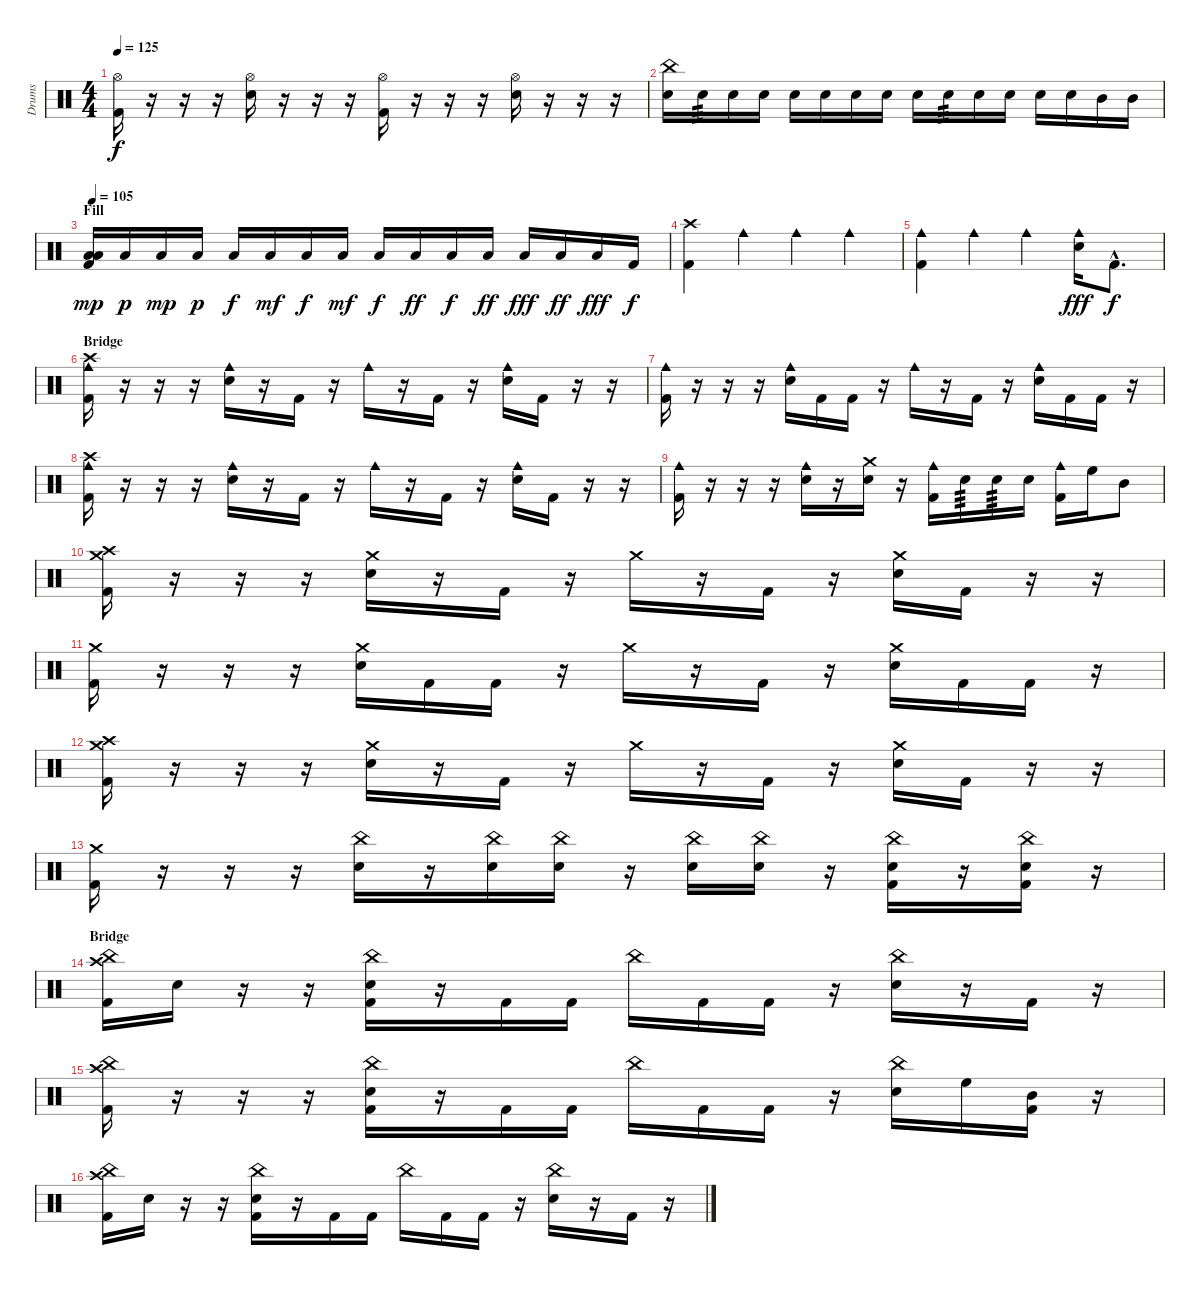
\track ("Drums" "Drums") {instrument percussion}
\staff {score}
\articulation defaults
\ts (4 4)
\tempo 125
\clef neutral
\ks c
("Hi-Hat (open)" "Kick (hit) 2").16{dy f} r.16 r.16 r.16 ("Hi-Hat (open)" "Electric Snare (hit)").16 r.16 r.16 r.16 ("Hi-Hat (open)" "Kick (hit) 2").16 r.16 r.16 r.16 ("Hi-Hat (open)" "Electric Snare (hit)").16 r.16 r.16 r.16 |
("China (hit)" "Electric Snare (hit)").16 "Electric Snare (hit)".16{tp 3} "Electric Snare (hit)".16 "Electric Snare (hit)".16 "Electric Snare (hit)".16 "Electric Snare (hit)".16 "Electric Snare (hit)".16 "Electric Snare (hit)".16 "Electric Snare (hit)".16 "Electric Snare (hit)".16{tp 3} "Electric Snare (hit)".16 "Electric Snare (hit)".16 "Electric Snare (hit)".16 "Electric Snare (hit)".16 "Mid Tom (hit)".16 "Mid Tom (hit)".16 |
\section ("" "Fill")
\tempo 105
("Low Tom (hit)" "Low Floor Tom (hit)" "Kick (hit) 2").16{dy mp} "Low Tom (hit)".16{dy p} "Low Tom (hit)".16{dy mp} "Low Tom (hit)".16{dy p} "Low Tom (hit)".16{dy f} "Low Tom (hit)".16{dy mf} "Low Tom (hit)".16{dy f} "Low Tom (hit)".16{dy mf} "Low Tom (hit)".16{dy f} "Low Tom (hit)".16{dy ff} "Low Tom (hit)".16{dy f} "Low Tom (hit)".16{dy ff} "Low Tom (hit)".16{dy fff} "Low Tom (hit)".16{dy ff} "Low Tom (hit)".16{dy fff} "Kick (hit) 2".16{dy f} |
("Crash high (hit)" "Kick (hit) 2").4 "Cowbell medium (hit)".4 "Cowbell medium (hit)".4 "Cowbell medium (hit)".4 |
("Cowbell medium (hit)" "Kick (hit) 2").4 "Cowbell medium (hit)".4 "Cowbell medium (hit)".4 ("Cowbell medium (hit)" "Electric Snare (hit)").16{dy fff} "Kick (hit) 2"{hac}.8{d dy f} |
\section ("" "Bridge")
("Cowbell medium (hit)" "Crash high (hit)" "Kick (hit) 2").16 r.16 r.16 r.16 ("Cowbell medium (hit)" "Electric Snare (hit)").16 r.16 "Kick (hit) 2".16 r.16 "Cowbell medium (hit)".16 r.16 "Kick (hit) 2".16 r.16 ("Cowbell medium (hit)" "Electric Snare (hit)").16 "Kick (hit) 2".16 r.16 r.16 |
("Cowbell medium (hit)" "Kick (hit) 2").16 r.16 r.16 r.16 ("Cowbell medium (hit)" "Electric Snare (hit)").16 "Kick (hit) 2".16 "Kick (hit) 2".16 r.16 "Cowbell medium (hit)".16 r.16 "Kick (hit) 2".16 r.16 ("Cowbell medium (hit)" "Electric Snare (hit)").16 "Kick (hit) 2".16 "Kick (hit) 2".16 r.16 |
("Cowbell medium (hit)" "Crash high (hit)" "Kick (hit) 2").16 r.16 r.16 r.16 ("Cowbell medium (hit)" "Electric Snare (hit)").16 r.16 "Kick (hit) 2".16 r.16 "Cowbell medium (hit)".16 r.16 "Kick (hit) 2".16 r.16 ("Cowbell medium (hit)" "Electric Snare (hit)").16 "Kick (hit) 2".16 r.16 r.16 |
("Cowbell medium (hit)" "Kick (hit) 2").16 r.16 r.16 r.16 ("Cowbell medium (hit)" "Electric Snare (hit)").16 r.16 ("Crash medium (hit)" "Electric Snare (hit)").16 r.16 ("Cowbell medium (hit)" "Kick (hit) 2").16 "Electric Snare (hit)".16{tp 3} "Electric Snare (hit)".16{tp 3} "Electric Snare (hit)".16 ("Cowbell medium (hit)" "Kick (hit) 2").16 "High Floor Tom (hit)".16 "Mid Tom (hit)".8 |
("Crash medium (hit)" "Crash high (hit)" "Kick (hit) 2").16 r.16 r.16 r.16 ("Crash medium (hit)" "Electric Snare (hit)").16 r.16 "Kick (hit) 2".16 r.16 "Crash medium (hit)".16 r.16 "Kick (hit) 2".16 r.16 ("Crash medium (hit)" "Electric Snare (hit)").16 "Kick (hit) 2".16 r.16 r.16 |
("Crash medium (hit)" "Kick (hit) 2").16 r.16 r.16 r.16 ("Crash medium (hit)" "Electric Snare (hit)").16 "Kick (hit) 2".16 "Kick (hit) 2".16 r.16 "Crash medium (hit)".16 r.16 "Kick (hit) 2".16 r.16 ("Crash medium (hit)" "Electric Snare (hit)").16 "Kick (hit) 2".16 "Kick (hit) 2".16 r.16 |
("Crash medium (hit)" "Crash high (hit)" "Kick (hit) 2").16 r.16 r.16 r.16 ("Crash medium (hit)" "Electric Snare (hit)").16 r.16 "Kick (hit) 2".16 r.16 "Crash medium (hit)".16 r.16 "Kick (hit) 2".16 r.16 ("Crash medium (hit)" "Electric Snare (hit)").16 "Kick (hit) 2".16 r.16 r.16 |
("Crash medium (hit)" "Kick (hit) 2").16 r.16 r.16 r.16 ("China (hit)" "Electric Snare (hit)").16 r.16 ("China (hit)" "Electric Snare (hit)").16 ("China (hit)" "Electric Snare (hit)").16 r.16 ("China (hit)" "Electric Snare (hit)").16 ("China (hit)" "Electric Snare (hit)").16 r.16 ("China (hit)" "Electric Snare (hit)" "Kick (hit) 2").16 r.16 ("China (hit)" "Electric Snare (hit)" "Kick (hit) 2").16 r.16 |
\section ("" "Bridge")
("China (hit)" "Crash high (hit)" "Kick (hit) 2").16 "Electric Snare (hit)".16 r.16 r.16 ("China (hit)" "Electric Snare (hit)" "Kick (hit) 2").16 r.16 "Kick (hit) 2".16 "Kick (hit) 2".16 "China (hit)".16 "Kick (hit) 2".16 "Kick (hit) 2".16 r.16 ("China (hit)" "Electric Snare (hit)").16 r.16 "Kick (hit) 2".16 r.16 |
("China (hit)" "Crash high (hit)" "Kick (hit) 2").16 r.16 r.16 r.16 ("China (hit)" "Electric Snare (hit)" "Kick (hit) 2").16 r.16 "Kick (hit) 2".16 "Kick (hit) 2".16 "China (hit)".16 "Kick (hit) 2".16 "Kick (hit) 2".16 r.16 ("China (hit)" "Electric Snare (hit)").16 "High Floor Tom (hit)".16 ("Mid Tom (hit)" "Kick (hit) 2").16 r.16 |
("China (hit)" "Crash high (hit)" "Kick (hit) 2").16 "Electric Snare (hit)".16 r.16 r.16 ("China (hit)" "Electric Snare (hit)" "Kick (hit) 2").16 r.16 "Kick (hit) 2".16 "Kick (hit) 2".16 "China (hit)".16 "Kick (hit) 2".16 "Kick (hit) 2".16 r.16 ("China (hit)" "Electric Snare (hit)").16 r.16 "Kick (hit) 2".16 r.16
